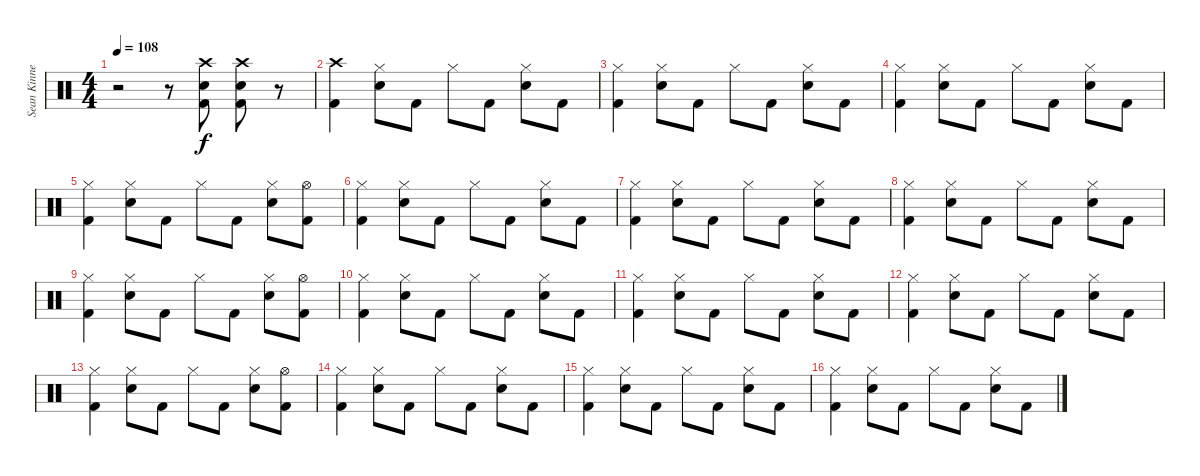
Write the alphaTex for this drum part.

\track ("Sean Kinney - Drums" "Sean Kinne") {instrument percussion}
\staff {score}
\articulation defaults
\ts (4 4)
\tempo 108
\clef neutral
\ks c
r.2{dy f} r.8 ("Crash high (hit)" "Electric Snare (hit)" "Kick (hit) 2").8 ("Crash high (hit)" "Electric Snare (hit)" "Kick (hit) 2").8 r.8 |
("Crash high (hit)" "Kick (hit) 2").4 ("Hi-Hat (closed)" "Electric Snare (hit)").8 "Kick (hit) 2".8 "Hi-Hat (closed)".8 "Kick (hit) 2".8 ("Hi-Hat (closed)" "Electric Snare (hit)").8 "Kick (hit) 2".8 |
("Hi-Hat (closed)" "Kick (hit) 2").4 ("Hi-Hat (closed)" "Electric Snare (hit)").8 "Kick (hit) 2".8 "Hi-Hat (closed)".8 "Kick (hit) 2".8 ("Hi-Hat (closed)" "Electric Snare (hit)").8 "Kick (hit) 2".8 |
("Hi-Hat (closed)" "Kick (hit) 2").4 ("Hi-Hat (closed)" "Electric Snare (hit)").8 "Kick (hit) 2".8 "Hi-Hat (closed)".8 "Kick (hit) 2".8 ("Hi-Hat (closed)" "Electric Snare (hit)").8 "Kick (hit) 2".8 |
("Hi-Hat (closed)" "Kick (hit) 2").4 ("Hi-Hat (closed)" "Electric Snare (hit)").8 "Kick (hit) 2".8 "Hi-Hat (closed)".8 "Kick (hit) 2".8 ("Hi-Hat (closed)" "Electric Snare (hit)").8 ("Hi-Hat (open)" "Kick (hit) 2").8 |
("Hi-Hat (closed)" "Kick (hit) 2").4 ("Hi-Hat (closed)" "Electric Snare (hit)").8 "Kick (hit) 2".8 "Hi-Hat (closed)".8 "Kick (hit) 2".8 ("Hi-Hat (closed)" "Electric Snare (hit)").8 "Kick (hit) 2".8 |
("Hi-Hat (closed)" "Kick (hit) 2").4 ("Hi-Hat (closed)" "Electric Snare (hit)").8 "Kick (hit) 2".8 "Hi-Hat (closed)".8 "Kick (hit) 2".8 ("Hi-Hat (closed)" "Electric Snare (hit)").8 "Kick (hit) 2".8 |
("Hi-Hat (closed)" "Kick (hit) 2").4 ("Hi-Hat (closed)" "Electric Snare (hit)").8 "Kick (hit) 2".8 "Hi-Hat (closed)".8 "Kick (hit) 2".8 ("Hi-Hat (closed)" "Electric Snare (hit)").8 "Kick (hit) 2".8 |
("Hi-Hat (closed)" "Kick (hit) 2").4 ("Hi-Hat (closed)" "Electric Snare (hit)").8 "Kick (hit) 2".8 "Hi-Hat (closed)".8 "Kick (hit) 2".8 ("Hi-Hat (closed)" "Electric Snare (hit)").8 ("Hi-Hat (open)" "Kick (hit) 2").8 |
("Hi-Hat (closed)" "Kick (hit) 2").4 ("Hi-Hat (closed)" "Electric Snare (hit)").8 "Kick (hit) 2".8 "Hi-Hat (closed)".8 "Kick (hit) 2".8 ("Hi-Hat (closed)" "Electric Snare (hit)").8 "Kick (hit) 2".8 |
("Hi-Hat (closed)" "Kick (hit) 2").4 ("Hi-Hat (closed)" "Electric Snare (hit)").8 "Kick (hit) 2".8 "Hi-Hat (closed)".8 "Kick (hit) 2".8 ("Hi-Hat (closed)" "Electric Snare (hit)").8 "Kick (hit) 2".8 |
("Hi-Hat (closed)" "Kick (hit) 2").4 ("Hi-Hat (closed)" "Electric Snare (hit)").8 "Kick (hit) 2".8 "Hi-Hat (closed)".8 "Kick (hit) 2".8 ("Hi-Hat (closed)" "Electric Snare (hit)").8 "Kick (hit) 2".8 |
("Hi-Hat (closed)" "Kick (hit) 2").4 ("Hi-Hat (closed)" "Electric Snare (hit)").8 "Kick (hit) 2".8 "Hi-Hat (closed)".8 "Kick (hit) 2".8 ("Hi-Hat (closed)" "Electric Snare (hit)").8 ("Hi-Hat (open)" "Kick (hit) 2").8 |
("Hi-Hat (closed)" "Kick (hit) 2").4 ("Hi-Hat (closed)" "Electric Snare (hit)").8 "Kick (hit) 2".8 "Hi-Hat (closed)".8 "Kick (hit) 2".8 ("Hi-Hat (closed)" "Electric Snare (hit)").8 "Kick (hit) 2".8 |
("Hi-Hat (closed)" "Kick (hit) 2").4 ("Hi-Hat (closed)" "Electric Snare (hit)").8 "Kick (hit) 2".8 "Hi-Hat (closed)".8 "Kick (hit) 2".8 ("Hi-Hat (closed)" "Electric Snare (hit)").8 "Kick (hit) 2".8 |
("Hi-Hat (closed)" "Kick (hit) 2").4 ("Hi-Hat (closed)" "Electric Snare (hit)").8 "Kick (hit) 2".8 "Hi-Hat (closed)".8 "Kick (hit) 2".8 ("Hi-Hat (closed)" "Electric Snare (hit)").8 "Kick (hit) 2".8
